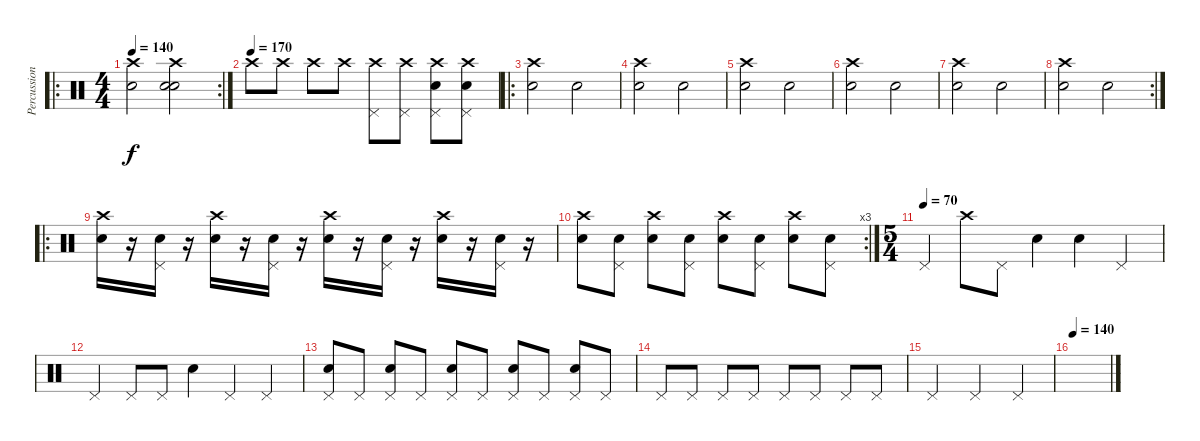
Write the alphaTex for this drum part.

\track ("Percussion" "Percussion") {instrument percussion}
\staff {score}
\articulation defaults
\ro
\rc 2
\ts (4 4)
\tempo 140
\clef neutral
\ks c
("Crash high (hit)" "Snare (hit) 2").2{dy f} ("Crash high (hit)" "Snare (hit) 2" "Snare (hit) 2").2 |
\tempo (170)
"Crash high (hit)".8 "Crash high (hit)".8 "Crash high (hit)".8 "Crash high (hit)".8 ("Crash high (hit)" "Pedal Hi-Hat (hit)").8 ("Crash high (hit)" "Pedal Hi-Hat (hit)").8 ("Crash high (hit)" "Pedal Hi-Hat (hit)" "Snare (hit) 2").8 ("Crash high (hit)" "Pedal Hi-Hat (hit)" "Snare (hit) 2").8 |
\ro
("Snare (hit) 2" "Crash high (hit)").2 "Snare (hit) 2".2 |
("Snare (hit) 2" "Crash high (hit)").2 "Snare (hit) 2".2 |
("Snare (hit) 2" "Crash high (hit)").2 "Snare (hit) 2".2 |
("Snare (hit) 2" "Crash high (hit)").2 "Snare (hit) 2".2 |
("Snare (hit) 2" "Crash high (hit)").2 "Snare (hit) 2".2 |
\rc 2
("Snare (hit) 2" "Crash high (hit)").2 "Snare (hit) 2".2 |
\ro
("Snare (hit) 2" "Crash high (hit)").16 r.16 ("Snare (hit) 2" "Pedal Hi-Hat (hit)").16 r.16 ("Snare (hit) 2" "Crash high (hit)").16 r.16 ("Snare (hit) 2" "Pedal Hi-Hat (hit)").16 r.16 ("Snare (hit) 2" "Crash high (hit)").16 r.16 ("Snare (hit) 2" "Pedal Hi-Hat (hit)").16 r.16 ("Snare (hit) 2" "Crash high (hit)").16 r.16 ("Snare (hit) 2" "Pedal Hi-Hat (hit)").16 r.16 |
\rc 3
("Snare (hit) 2" "Crash high (hit)").8 ("Snare (hit) 2" "Pedal Hi-Hat (hit)").8 ("Snare (hit) 2" "Crash high (hit)").8 ("Snare (hit) 2" "Pedal Hi-Hat (hit)").8 ("Snare (hit) 2" "Crash high (hit)").8 ("Snare (hit) 2" "Pedal Hi-Hat (hit)").8 ("Snare (hit) 2" "Crash high (hit)").8 ("Snare (hit) 2" "Pedal Hi-Hat (hit)").8 |
\ts (5 4)
\tempo (70)
"Pedal Hi-Hat (hit)".4 "Crash high (hit)".8 "Pedal Hi-Hat (hit)".8 "Snare (hit) 2".4 "Snare (hit) 2".4 "Pedal Hi-Hat (hit)".4 |
"Pedal Hi-Hat (hit)".4 "Pedal Hi-Hat (hit)".8 "Pedal Hi-Hat (hit)".8 "Snare (hit) 2".4 "Pedal Hi-Hat (hit)".4 "Pedal Hi-Hat (hit)".4 |
("Pedal Hi-Hat (hit)" "Snare (hit) 2").8 "Pedal Hi-Hat (hit)".8 ("Pedal Hi-Hat (hit)" "Snare (hit) 2").8 "Pedal Hi-Hat (hit)".8 ("Pedal Hi-Hat (hit)" "Snare (hit) 2").8 "Pedal Hi-Hat (hit)".8 ("Pedal Hi-Hat (hit)" "Snare (hit) 2").8 "Pedal Hi-Hat (hit)".8 ("Pedal Hi-Hat (hit)" "Snare (hit) 2").8 "Pedal Hi-Hat (hit)".8 |
"Pedal Hi-Hat (hit)".8 "Pedal Hi-Hat (hit)".8 "Pedal Hi-Hat (hit)".8 "Pedal Hi-Hat (hit)".8 "Pedal Hi-Hat (hit)".8 "Pedal Hi-Hat (hit)".8 "Pedal Hi-Hat (hit)".8 "Pedal Hi-Hat (hit)".8 |
"Pedal Hi-Hat (hit)".2 "Pedal Hi-Hat (hit)".2 "Pedal Hi-Hat (hit)".4 |
\tempo 140
